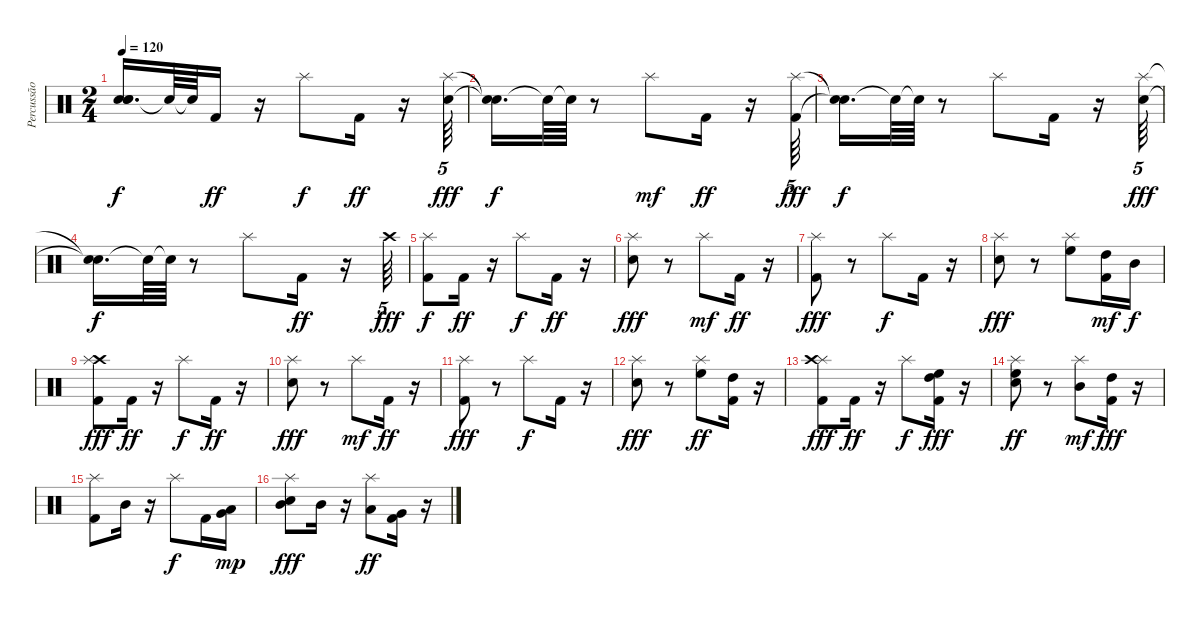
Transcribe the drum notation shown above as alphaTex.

\track ("Percussão" "Percussão") {instrument percussion}
\staff {score}
\articulation defaults
\ts (2 4)
\tempo 120
\clef neutral
\ks c
("Snare (hit)"{t} "Snare (hit)"{t} "Snare (hit)"{t}).16{d dy f} "Snare (hit)"{t}.64 "Snare (hit)"{t}.64 "Kick (hit) 2".16{dy ff} r.16 "Splash (hit)".8{dy f} "Kick (hit) 2".16{dy ff} r.16 ("Snare (hit) 2" "Splash (hit)").64{tu (5 4) dy fff} |
("Snare (hit)"{t} "Snare (hit)"{t}).16{d dy f} "Snare (hit)"{t}.64 "Snare (hit)"{t}.64 r.8 "Splash (hit)".8{dy mf} "Kick (hit) 2".16{dy ff} r.16 ("Kick (hit) 2" "Splash (hit)").64{tu (5 4) dy fff} |
("Snare (hit)"{t} "Snare (hit)"{t}).16{d dy f} "Snare (hit)"{t}.64 "Snare (hit)"{t}.64 r.8 "Splash (hit)".8 "Kick (hit) 2".16 r.16 ("Snare (hit) 2" "Splash (hit)").64{tu (5 4) dy fff} |
("Snare (hit)"{t} "Snare (hit)"{t}).16{d dy f} "Snare (hit)"{t}.64 "Snare (hit)"{t}.64 r.8 "Splash (hit)".8 "Kick (hit) 2".16{dy ff} r.16 "Crash high (hit)".64{tu (5 4) dy fff} |
("Kick (hit) 2" "Splash (hit)").8{dy f} "Kick (hit) 2".16{dy ff} r.16 "Splash (hit)".8{dy f} "Kick (hit) 2".16{dy ff} r.16 |
("Snare (hit) 2" "Splash (hit)").8{dy fff} r.8 "Splash (hit)".8{dy mf} "Kick (hit) 2".16{dy ff} r.16 |
("Kick (hit) 2" "Splash (hit)").8{dy fff} r.8 "Splash (hit)".8{dy f} "Kick (hit) 2".16 r.16 |
("Snare (hit) 2" "Splash (hit)").8{dy fff} r.8 ("Splash (hit)" "High Floor Tom (hit)").8 ("Kick (hit) 2" "High Tom (hit)").16{dy mf} "Mid Tom (hit)".16{dy f} |
("Crash high (hit)" "Kick (hit) 2" "Splash (hit)").8{dy fff} "Kick (hit) 2".16{dy ff} r.16 "Splash (hit)".8{dy f} "Kick (hit) 2".16{dy ff} r.16 |
("Snare (hit) 2" "Splash (hit)").8{dy fff} r.8 "Splash (hit)".8{dy mf} "Kick (hit) 2".16{dy ff} r.16 |
("Kick (hit) 2" "Splash (hit)").8{dy fff} r.8 "Splash (hit)".8{dy f} "Kick (hit) 2".16 r.16 |
("Snare (hit) 2" "Splash (hit)").8{dy fff} r.8 ("Splash (hit)" "High Floor Tom (hit)").8{dy ff} ("Kick (hit) 2" "High Tom (hit)").16 r.16 |
("Kick (hit) 2" "Splash (hit)" "Crash high (hit)").8{dy fff} "Kick (hit) 2".16{dy ff} r.16 "Splash (hit)".8{dy f} ("Kick (hit) 2" "High Tom (hit)" "High Floor Tom (hit)").16{dy fff} r.16 |
("Snare (hit) 2" "Splash (hit)" "High Floor Tom (hit)").8{dy ff} r.8 ("Mid Tom (hit)" "Splash (hit)").8{dy mf} ("Kick (hit) 2" "High Tom (hit)").16{dy fff} r.16 |
("Kick (hit) 2" "Splash (hit)").8 "Mid Tom (hit)".16 r.16 "Splash (hit)".8{dy f} "Kick (hit) 2".16 ("Very Low Tom (hit)" "Low Tom (hit)").16{dy mp} |
("Mid Tom (hit)" "Snare (hit) 2" "Splash (hit)").8{dy fff} "Mid Tom (hit)".16 r.16 ("Low Tom (hit)" "Splash (hit)").8{dy ff} ("Very Low Tom (hit)" "Kick (hit) 2").16 r.16
